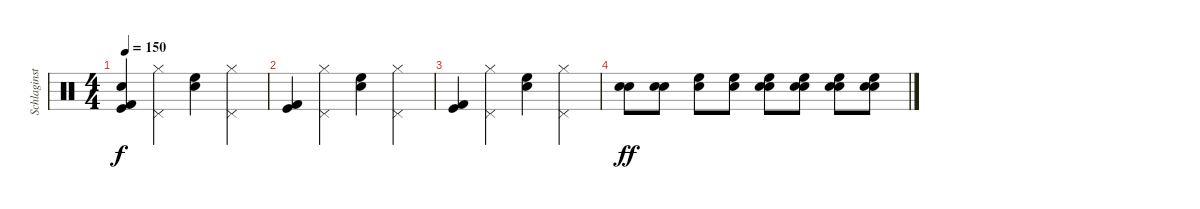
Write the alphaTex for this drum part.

\track ("Schlaginstrumente - Auswahl" "Schlaginst") {instrument percussion}
\staff {score}
\articulation defaults
\ts (4 4)
\tempo 150
\clef neutral
\ks c
("Kick (hit) 2" "Kick (hit)" "Snare (hit)"{t}).4{dy f} ("Pedal Hi-Hat (hit)" "Hi-Hat (closed)").4 ("High Floor Tom (hit)" "Snare (hit) 2").4 ("Pedal Hi-Hat (hit)" "Hi-Hat (closed)").4 |
("Kick (hit) 2" "Kick (hit)").4 ("Pedal Hi-Hat (hit)" "Hi-Hat (closed)").4 ("High Floor Tom (hit)" "Snare (hit) 2").4 ("Pedal Hi-Hat (hit)" "Hi-Hat (closed)").4 |
("Kick (hit) 2" "Kick (hit)").4 ("Pedal Hi-Hat (hit)" "Hi-Hat (closed)").4 ("High Floor Tom (hit)" "Snare (hit) 2").4 ("Pedal Hi-Hat (hit)" "Hi-Hat (closed)").4 |
("Snare (hit) 2" "Electric Snare (hit)").8{dy ff} ("Snare (hit) 2" "Electric Snare (hit)").8 ("Snare (hit) 2" "High Floor Tom (hit)").8 ("Snare (hit) 2" "High Floor Tom (hit)").8 ("Snare (hit) 2" "High Floor Tom (hit)" "Electric Snare (hit)").8 ("Snare (hit) 2" "High Floor Tom (hit)" "Electric Snare (hit)").8 ("Snare (hit) 2" "High Floor Tom (hit)" "Electric Snare (hit)").8 ("Snare (hit) 2" "High Floor Tom (hit)" "Electric Snare (hit)").8
